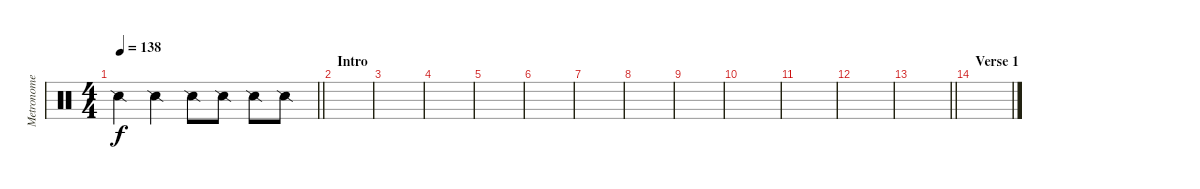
\track ("Metronome" "Metronome") {instrument percussion}
\staff {score}
\articulation defaults
\ts (4 4)
\tempo 138
\clef neutral
\barLineRight lightlight
\ks c "Snare (side stick) 2".4{dy f} "Snare (side stick) 2".4 "Snare (side stick) 2".8 "Snare (side stick) 2".8 "Snare (side stick) 2".8 "Snare (side stick) 2".8
|
\section ("" "Intro")
|
|
|
|
|
|
|
|
|
|
|
\barLineRight lightlight
|
\section ("" "Verse 1")
